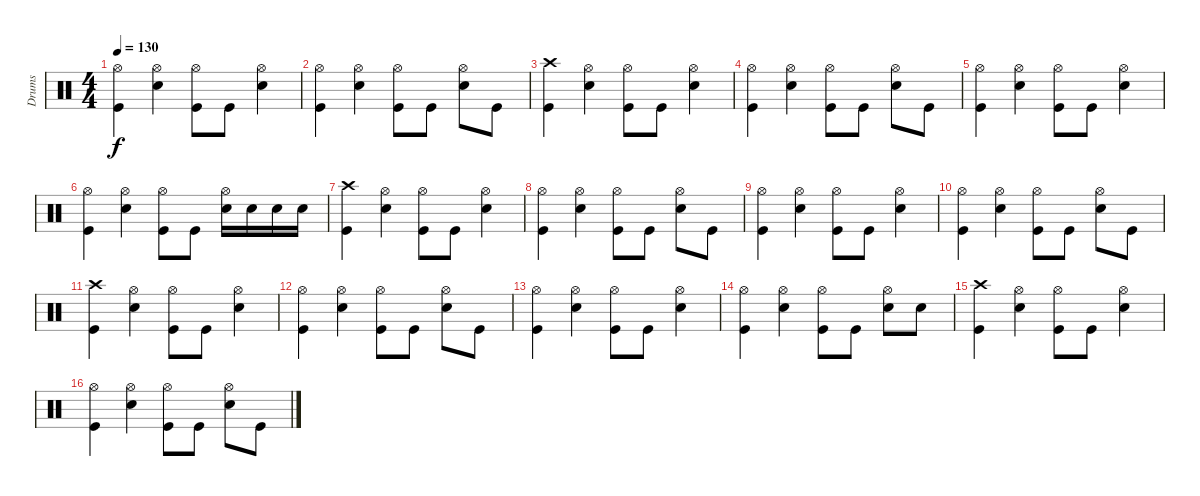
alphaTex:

\track ("Drums" "Drums") {instrument percussion}
\staff {score}
\articulation defaults
\ts (4 4)
\tempo 130
\clef neutral
\ks c
("Hi-Hat (open)" "Kick (hit)").4{dy f} ("Hi-Hat (open)" "Electric Snare (hit)").4 ("Hi-Hat (open)" "Kick (hit)").8 "Kick (hit)".8 ("Hi-Hat (open)" "Electric Snare (hit)").4 |
("Hi-Hat (open)" "Kick (hit)").4 ("Hi-Hat (open)" "Electric Snare (hit)").4 ("Hi-Hat (open)" "Kick (hit)").8 "Kick (hit)".8 ("Hi-Hat (open)" "Electric Snare (hit)").8 "Kick (hit)".8 |
("Crash high (hit)" "Kick (hit)").4 ("Hi-Hat (open)" "Electric Snare (hit)").4 ("Hi-Hat (open)" "Kick (hit)").8 "Kick (hit)".8 ("Hi-Hat (open)" "Electric Snare (hit)").4 |
("Hi-Hat (open)" "Kick (hit)").4 ("Hi-Hat (open)" "Electric Snare (hit)").4 ("Hi-Hat (open)" "Kick (hit)").8 "Kick (hit)".8 ("Hi-Hat (open)" "Electric Snare (hit)").8 "Kick (hit)".8 |
("Hi-Hat (open)" "Kick (hit)").4 ("Hi-Hat (open)" "Electric Snare (hit)").4 ("Hi-Hat (open)" "Kick (hit)").8 "Kick (hit)".8 ("Hi-Hat (open)" "Electric Snare (hit)").4 |
("Hi-Hat (open)" "Kick (hit)").4 ("Hi-Hat (open)" "Electric Snare (hit)").4 ("Hi-Hat (open)" "Kick (hit)").8 "Kick (hit)".8 ("Hi-Hat (open)" "Electric Snare (hit)").16 "Electric Snare (hit)".16 "Electric Snare (hit)".16 "Electric Snare (hit)".16 |
("Crash high (hit)" "Kick (hit)").4 ("Hi-Hat (open)" "Electric Snare (hit)").4 ("Hi-Hat (open)" "Kick (hit)").8 "Kick (hit)".8 ("Hi-Hat (open)" "Electric Snare (hit)").4 |
("Hi-Hat (open)" "Kick (hit)").4 ("Hi-Hat (open)" "Electric Snare (hit)").4 ("Hi-Hat (open)" "Kick (hit)").8 "Kick (hit)".8 ("Hi-Hat (open)" "Electric Snare (hit)").8 "Kick (hit)".8 |
("Hi-Hat (open)" "Kick (hit)").4 ("Hi-Hat (open)" "Electric Snare (hit)").4 ("Hi-Hat (open)" "Kick (hit)").8 "Kick (hit)".8 ("Hi-Hat (open)" "Electric Snare (hit)").4 |
("Hi-Hat (open)" "Kick (hit)").4 ("Hi-Hat (open)" "Electric Snare (hit)").4 ("Hi-Hat (open)" "Kick (hit)").8 "Kick (hit)".8 ("Hi-Hat (open)" "Electric Snare (hit)").8 "Kick (hit)".8 |
("Crash high (hit)" "Kick (hit)").4 ("Hi-Hat (open)" "Electric Snare (hit)").4 ("Hi-Hat (open)" "Kick (hit)").8 "Kick (hit)".8 ("Hi-Hat (open)" "Electric Snare (hit)").4 |
("Hi-Hat (open)" "Kick (hit)").4 ("Hi-Hat (open)" "Electric Snare (hit)").4 ("Hi-Hat (open)" "Kick (hit)").8 "Kick (hit)".8 ("Hi-Hat (open)" "Electric Snare (hit)").8 "Kick (hit)".8 |
("Hi-Hat (open)" "Kick (hit)").4 ("Hi-Hat (open)" "Electric Snare (hit)").4 ("Hi-Hat (open)" "Kick (hit)").8 "Kick (hit)".8 ("Hi-Hat (open)" "Electric Snare (hit)").4 |
("Hi-Hat (open)" "Kick (hit)").4 ("Hi-Hat (open)" "Electric Snare (hit)").4 ("Hi-Hat (open)" "Kick (hit)").8 "Kick (hit)".8 ("Hi-Hat (open)" "Electric Snare (hit)").8 "Electric Snare (hit)".8 |
("Crash high (hit)" "Kick (hit)").4 ("Hi-Hat (open)" "Electric Snare (hit)").4 ("Hi-Hat (open)" "Kick (hit)").8 "Kick (hit)".8 ("Hi-Hat (open)" "Electric Snare (hit)").4 |
("Hi-Hat (open)" "Kick (hit)").4 ("Hi-Hat (open)" "Electric Snare (hit)").4 ("Hi-Hat (open)" "Kick (hit)").8 "Kick (hit)".8 ("Hi-Hat (open)" "Electric Snare (hit)").8 "Kick (hit)".8
